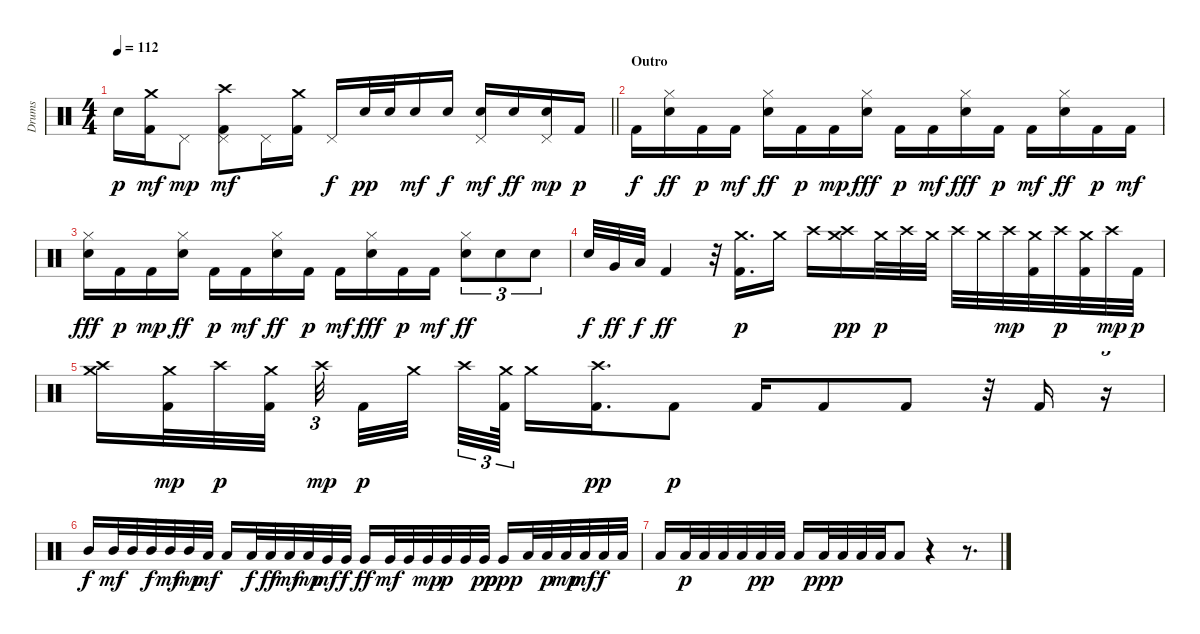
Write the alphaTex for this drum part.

\track ("Drums" "Drums") {instrument percussion}
\staff {score}
\articulation defaults
\ts (4 4)
\tempo 112
\clef neutral
\barLineRight lightlight
\ks c "Snare (hit) 2".16{dy p}
("Kick (hit) 2" "Crash medium (hit)").16{dy mf} "Pedal Hi-Hat (hit)".8{dy mp} ("Kick (hit) 2" "Pedal Hi-Hat (hit)" "Crash high (hit)").8{dy mf} "Pedal Hi-Hat (hit)".16 ("Kick (hit) 2" "Crash medium (hit)").16 "Pedal Hi-Hat (hit)".16{dy f} "Snare (hit) 2".32{dy pp} "Snare (hit) 2".32 "Snare (hit) 2".16{dy mf} "Snare (hit) 2".16{dy f} ("Snare (hit) 2" "Pedal Hi-Hat (hit)").16{dy mf} "Snare (hit) 2".16{dy ff} ("Snare (hit) 2" "Pedal Hi-Hat (hit)").16{dy mp} "Kick (hit) 2".16{dy p} |
\section ("" "Outro")
"Kick (hit) 2".16{dy f} ("Snare (hit) 2" "Hi-Hat (closed)").16{dy ff} "Kick (hit) 2".16{dy p} "Kick (hit) 2".16{dy mf} ("Snare (hit) 2" "Hi-Hat (closed)").16{dy ff} "Kick (hit) 2".16{dy p} "Kick (hit) 2".16{dy mp} ("Snare (hit) 2" "Hi-Hat (closed)").16{dy fff} "Kick (hit) 2".16{dy p} "Kick (hit) 2".16{dy mf} ("Snare (hit) 2" "Hi-Hat (closed)").16{dy fff} "Kick (hit) 2".16{dy p} "Kick (hit) 2".16{dy mf} ("Snare (hit) 2" "Hi-Hat (closed)").16{dy ff} "Kick (hit) 2".16{dy p} "Kick (hit) 2".16{dy mf} |
("Snare (hit) 2" "Hi-Hat (closed)").16{dy fff} "Kick (hit) 2".16{dy p} "Kick (hit) 2".16{dy mp} ("Snare (hit) 2" "Hi-Hat (closed)").16{dy ff} "Kick (hit) 2".16{dy p} "Kick (hit) 2".16{dy mf} ("Snare (hit) 2" "Hi-Hat (closed)").16{dy ff} "Kick (hit) 2".16{dy p} "Kick (hit) 2".16{dy mf} ("Snare (hit) 2" "Hi-Hat (closed)").16{dy fff} "Kick (hit) 2".16{dy p} "Kick (hit) 2".16{dy mf} ("Snare (hit) 2" "Hi-Hat (closed)").8{tu (3 2) dy ff} "Snare (hit) 2".8{tu (3 2)} "Snare (hit) 2".8{tu (3 2)} |
"Snare (hit) 2".32{dy f} "Very Low Tom (hit)".32{dy ff} "Low Floor Tom (hit)".32{dy f} "Kick (hit) 2".4{dy ff} r.32 ("Kick (hit) 2" "Crash medium (hit)").16{d dy p} "Crash medium (hit)".16 "Crash high (hit)".16 ("Crash medium (hit)" "Crash high (hit)").16{dy pp} "Crash medium (hit)".32{dy p} "Crash high (hit)".32 "Crash medium (hit)".32 "Crash high (hit)".32 "Crash medium (hit)".32 "Crash high (hit)".32{dy mp} ("Kick (hit) 2" "Crash medium (hit)").32 "Crash high (hit)".32{dy p} ("Kick (hit) 2" "Crash medium (hit)").32 "Crash high (hit)".32{dy mp} "Kick (hit) 2".32{dy p} |
("Crash medium (hit)" "Crash high (hit)").16 ("Kick (hit) 2" "Crash medium (hit)").32{dy mp} "Crash high (hit)".32{dy p} ("Crash medium (hit)" "Kick (hit) 2").32{beam splitsecondary} "Crash high (hit)".32{tu (3 2) dy mp beam splitsecondary} "Kick (hit) 2".32{dy p} "Crash medium (hit)".32{beam splitsecondary} "Crash high (hit)".32{tu (3 2)} ("Kick (hit) 2" "Crash medium (hit)").64{tu (3 2) beam splitsecondary} "Crash medium (hit)".16 ("Crash high (hit)" "Kick (hit) 2").16{d dy pp} "Kick (hit) 2".8{dy p} "Kick (hit) 2".16 "Kick (hit) 2".8 "Kick (hit) 2".8 r.32 "Kick (hit) 2".16 r.16{tu (3 2)} |
"Mid Tom (hit)".16{dy f} "Mid Tom (hit)".32{dy mf} "Mid Tom (hit)".32 "Mid Tom (hit)".32{dy f} "Mid Tom (hit)".32{dy mf} "Mid Tom (hit)".32{dy mp} "Low Tom (hit)".32{dy mf} "Low Tom (hit)".16 "Low Tom (hit)".32{dy f} "Low Tom (hit)".32{dy ff} "Low Tom (hit)".32{dy mf} "Low Tom (hit)".32{dy mp} "Very Low Tom (hit)".32{dy mf} "Very Low Tom (hit)".32{dy f} "Very Low Tom (hit)".16{dy ff} "Very Low Tom (hit)".32{dy mf} "Very Low Tom (hit)".32 "Very Low Tom (hit)".32{dy mp} "Very Low Tom (hit)".32{dy p} "Very Low Tom (hit)".32 "Very Low Tom (hit)".32{dy pp} "Very Low Tom (hit)".16{dy ppp} "Low Floor Tom (hit)".32 "Low Floor Tom (hit)".32{dy p} "Low Floor Tom (hit)".32{dy mp} "Low Floor Tom (hit)".32{dy mf} "Low Floor Tom (hit)".32{dy f} "Low Floor Tom (hit)".32 |
"Low Floor Tom (hit)".16 "Low Floor Tom (hit)".32{dy p} "Low Floor Tom (hit)".32 "Low Floor Tom (hit)".32 "Low Floor Tom (hit)".32 "Low Floor Tom (hit)".32{dy pp} "Low Floor Tom (hit)".32 "Low Floor Tom (hit)".16 "Low Floor Tom (hit)".32{dy ppp} "Low Floor Tom (hit)".32 "Low Floor Tom (hit)".32 "Low Floor Tom (hit)".32 "Low Floor Tom (hit)".8 r.4 r.8{d}
